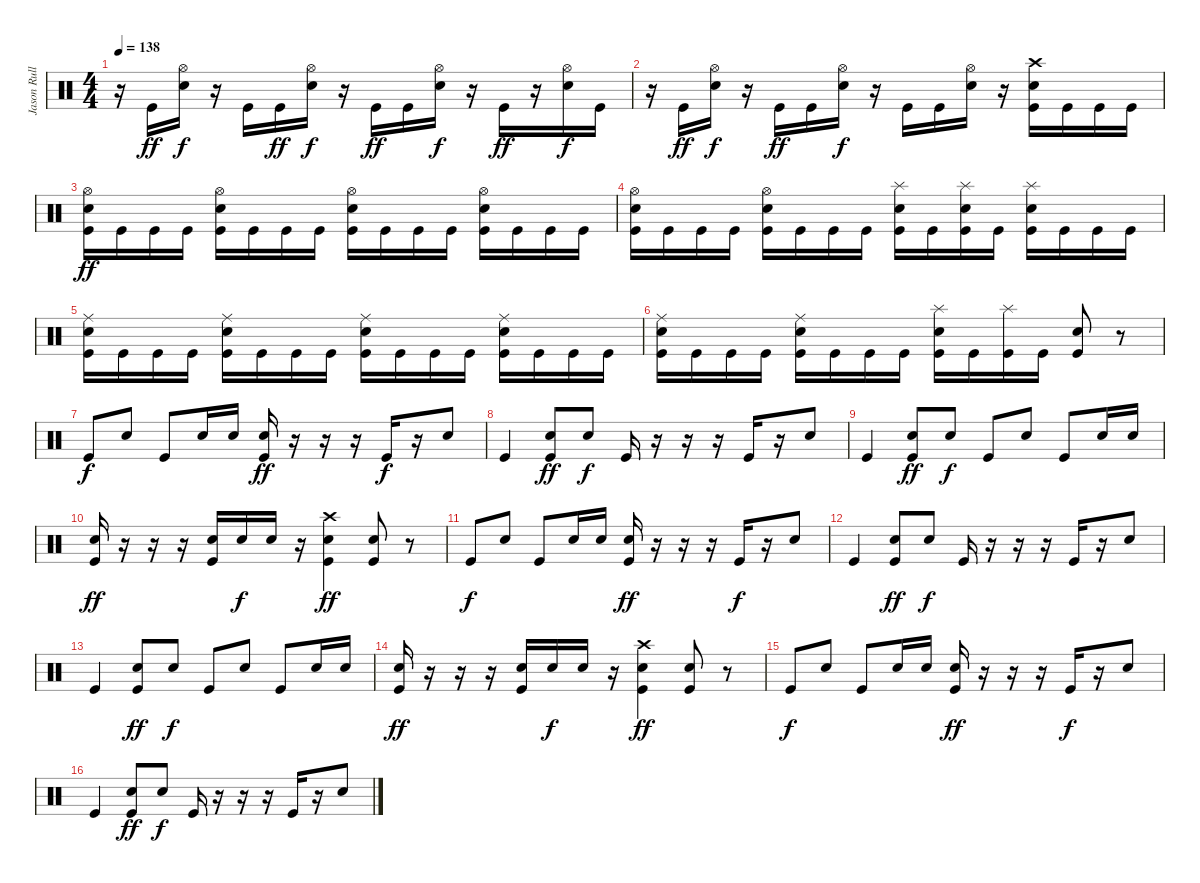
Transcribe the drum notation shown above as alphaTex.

\track ("Jason Rullo" "Jason Rull") {instrument percussion}
\staff {score}
\articulation defaults
\ts (4 4)
\tempo 138
\clef neutral
\ks c
r.16{dy f} "Kick (hit)".16{dy ff} ("Snare (hit) 2" "Hi-Hat (open)").16{dy f} r.16 "Kick (hit)".16 "Kick (hit)".16{dy ff} ("Snare (hit) 2" "Hi-Hat (open)").16{dy f} r.16 "Kick (hit)".16{dy ff} "Kick (hit)".16 ("Snare (hit) 2" "Hi-Hat (open)").16{dy f} r.16 "Kick (hit)".16{dy ff} r.16 ("Snare (hit) 2" "Hi-Hat (open)").16{dy f} "Kick (hit)".16 |
r.16 "Kick (hit)".16{dy ff} ("Snare (hit) 2" "Hi-Hat (open)").16{dy f} r.16 "Kick (hit)".16{dy ff} "Kick (hit)".16 ("Snare (hit) 2" "Hi-Hat (open)").16{dy f} r.16 "Kick (hit)".16 "Kick (hit)".16 ("Snare (hit) 2" "Hi-Hat (open)").16 r.16 ("Kick (hit)" "Snare (hit) 2" "Crash high (hit)").16 "Kick (hit)".16 "Kick (hit)".16 "Kick (hit)".16 |
("Kick (hit)" "Snare (hit) 2" "Hi-Hat (open)").16{dy ff} "Kick (hit)".16 "Kick (hit)".16 "Kick (hit)".16 ("Kick (hit)" "Snare (hit) 2" "Hi-Hat (open)").16 "Kick (hit)".16 "Kick (hit)".16 "Kick (hit)".16 ("Kick (hit)" "Snare (hit) 2" "Hi-Hat (open)").16 "Kick (hit)".16 "Kick (hit)".16 "Kick (hit)".16 ("Kick (hit)" "Snare (hit) 2" "Hi-Hat (open)").16 "Kick (hit)".16 "Kick (hit)".16 "Kick (hit)".16 |
("Kick (hit)" "Snare (hit) 2" "Hi-Hat (open)").16 "Kick (hit)".16 "Kick (hit)".16 "Kick (hit)".16 ("Kick (hit)" "Snare (hit) 2" "Hi-Hat (open)").16 "Kick (hit)".16 "Kick (hit)".16 "Kick (hit)".16 ("Kick (hit)" "Snare (hit) 2" "Splash (hit)").16 "Kick (hit)".16 ("Kick (hit)" "Snare (hit) 2" "Splash (hit)").16 "Kick (hit)".16 ("Kick (hit)" "Snare (hit) 2" "Splash (hit)").16 "Kick (hit)".16 "Kick (hit)".16 "Kick (hit)".16 |
("Kick (hit)" "Snare (hit) 2" "Ride (middle)").16 "Kick (hit)".16 "Kick (hit)".16 "Kick (hit)".16 ("Kick (hit)" "Snare (hit) 2" "Ride (middle)").16 "Kick (hit)".16 "Kick (hit)".16 "Kick (hit)".16 ("Kick (hit)" "Snare (hit) 2" "Ride (middle)").16 "Kick (hit)".16 "Kick (hit)".16 "Kick (hit)".16 ("Kick (hit)" "Snare (hit) 2" "Ride (middle)").16 "Kick (hit)".16 "Kick (hit)".16 "Kick (hit)".16 |
("Kick (hit)" "Snare (hit) 2" "Ride (middle)").16 "Kick (hit)".16 "Kick (hit)".16 "Kick (hit)".16 ("Kick (hit)" "Snare (hit) 2" "Ride (middle)").16 "Kick (hit)".16 "Kick (hit)".16 "Kick (hit)".16 ("Kick (hit)" "Snare (hit) 2" "Splash (hit)").16 "Kick (hit)".16 ("Kick (hit)" "Splash (hit)").16 "Kick (hit)".16 ("Kick (hit)" "Snare (hit) 2").8 r.8 |
"Kick (hit)".8{dy f} "Snare (hit) 2".8 "Kick (hit)".8 "Snare (hit) 2".16 "Snare (hit) 2".16 ("Kick (hit)" "Snare (hit) 2").16{dy ff} r.16 r.16 r.16 "Kick (hit)".16{dy f} r.16 "Snare (hit) 2".8 |
"Kick (hit)".4 ("Kick (hit)" "Snare (hit) 2").8{dy ff} "Snare (hit) 2".8{dy f} "Kick (hit)".16 r.16 r.16 r.16 "Kick (hit)".16 r.16 "Snare (hit) 2".8 |
"Kick (hit)".4 ("Kick (hit)" "Snare (hit) 2").8{dy ff} "Snare (hit) 2".8{dy f} "Kick (hit)".8 "Snare (hit) 2".8 "Kick (hit)".8 "Snare (hit) 2".16 "Snare (hit) 2".16 |
("Kick (hit)" "Snare (hit) 2").16{dy ff} r.16 r.16 r.16 ("Kick (hit)" "Snare (hit) 2").16 "Snare (hit) 2".16{dy f} "Snare (hit) 2".16 r.16 ("Kick (hit)" "Snare (hit) 2" "Crash high (hit)").4{dy ff} ("Kick (hit)" "Snare (hit) 2").8 r.8 |
"Kick (hit)".8{dy f} "Snare (hit) 2".8 "Kick (hit)".8 "Snare (hit) 2".16 "Snare (hit) 2".16 ("Kick (hit)" "Snare (hit) 2").16{dy ff} r.16 r.16 r.16 "Kick (hit)".16{dy f} r.16 "Snare (hit) 2".8 |
"Kick (hit)".4 ("Kick (hit)" "Snare (hit) 2").8{dy ff} "Snare (hit) 2".8{dy f} "Kick (hit)".16 r.16 r.16 r.16 "Kick (hit)".16 r.16 "Snare (hit) 2".8 |
"Kick (hit)".4 ("Kick (hit)" "Snare (hit) 2").8{dy ff} "Snare (hit) 2".8{dy f} "Kick (hit)".8 "Snare (hit) 2".8 "Kick (hit)".8 "Snare (hit) 2".16 "Snare (hit) 2".16 |
("Kick (hit)" "Snare (hit) 2").16{dy ff} r.16 r.16 r.16 ("Kick (hit)" "Snare (hit) 2").16 "Snare (hit) 2".16{dy f} "Snare (hit) 2".16 r.16 ("Kick (hit)" "Snare (hit) 2" "Crash high (hit)").4{dy ff} ("Kick (hit)" "Snare (hit) 2").8 r.8 |
"Kick (hit)".8{dy f} "Snare (hit) 2".8 "Kick (hit)".8 "Snare (hit) 2".16 "Snare (hit) 2".16 ("Kick (hit)" "Snare (hit) 2").16{dy ff} r.16 r.16 r.16 "Kick (hit)".16{dy f} r.16 "Snare (hit) 2".8 |
"Kick (hit)".4 ("Kick (hit)" "Snare (hit) 2").8{dy ff} "Snare (hit) 2".8{dy f} "Kick (hit)".16 r.16 r.16 r.16 "Kick (hit)".16 r.16 "Snare (hit) 2".8
